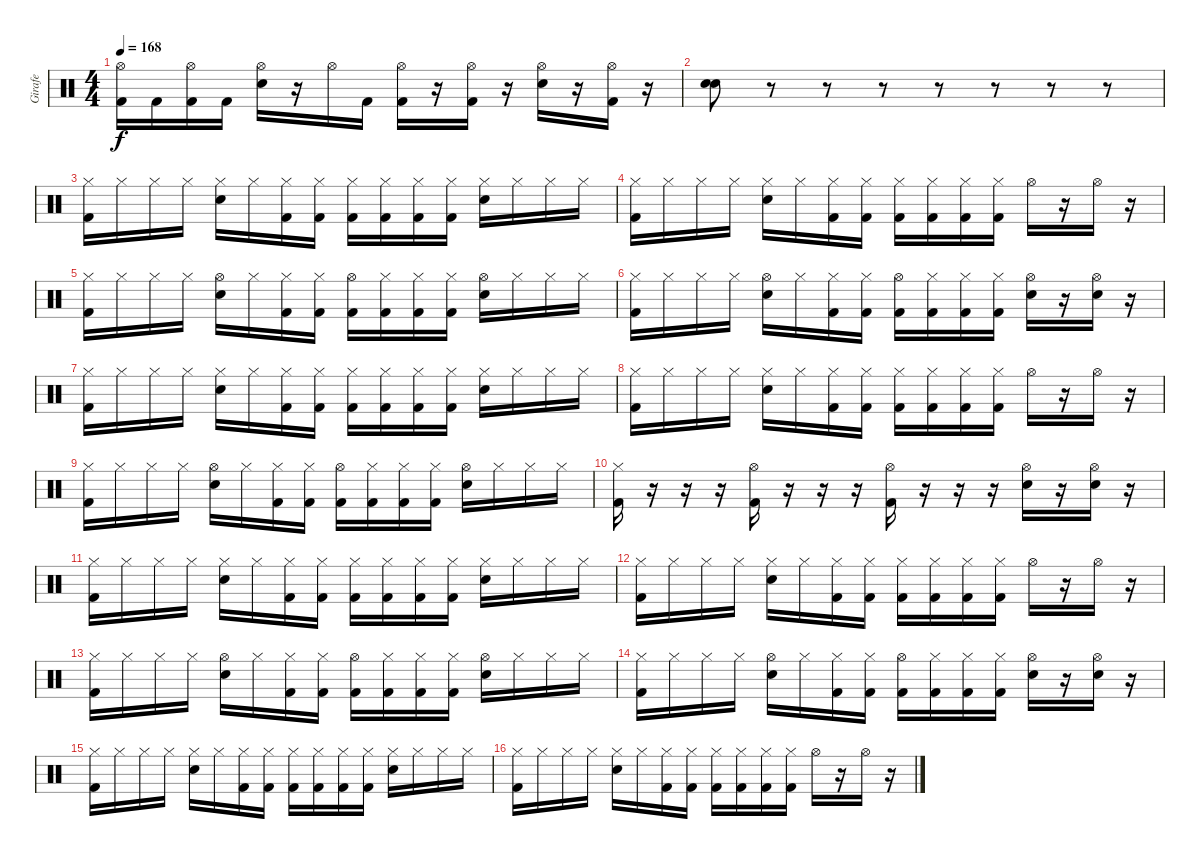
\track ("Girafe" "Girafe") {instrument percussion}
\staff {score}
\articulation defaults
\ts (4 4)
\tempo 168
\clef neutral
\ks c
("Hi-Hat (open)" "Kick (hit) 2").16{dy f} "Kick (hit) 2".16 ("Hi-Hat (open)" "Kick (hit) 2").16 "Kick (hit) 2".16 ("Hi-Hat (open)" "Electric Snare (hit)").16 r.16 "Hi-Hat (open)".16 "Kick (hit) 2".16 ("Hi-Hat (open)" "Kick (hit) 2").16 r.16 ("Hi-Hat (open)" "Kick (hit) 2").16 r.16 ("Hi-Hat (open)" "Electric Snare (hit)").16 r.16 ("Hi-Hat (open)" "Kick (hit) 2").16 r.16 |
("Electric Snare (hit)" "Electric Snare (hit)").8{bd 60} r.8 r.8 r.8 r.8 r.8 r.8 r.8 |
("Hi-Hat (closed)" "Kick (hit) 2").16 "Hi-Hat (closed)".16 "Hi-Hat (closed)".16 "Hi-Hat (closed)".16 ("Hi-Hat (closed)" "Electric Snare (hit)").16 "Hi-Hat (closed)".16 ("Hi-Hat (closed)" "Kick (hit) 2").16 ("Hi-Hat (closed)" "Kick (hit) 2").16 ("Hi-Hat (closed)" "Kick (hit) 2").16 ("Hi-Hat (closed)" "Kick (hit) 2").16 ("Hi-Hat (closed)" "Kick (hit) 2").16 ("Hi-Hat (closed)" "Kick (hit) 2").16 ("Hi-Hat (closed)" "Electric Snare (hit)").16 "Hi-Hat (closed)".16 "Hi-Hat (closed)".16 "Hi-Hat (closed)".16 |
("Hi-Hat (closed)" "Kick (hit) 2").16 "Hi-Hat (closed)".16 "Hi-Hat (closed)".16 "Hi-Hat (closed)".16 ("Hi-Hat (closed)" "Electric Snare (hit)").16 "Hi-Hat (closed)".16 ("Hi-Hat (closed)" "Kick (hit) 2").16 ("Hi-Hat (closed)" "Kick (hit) 2").16 ("Hi-Hat (closed)" "Kick (hit) 2").16 ("Hi-Hat (closed)" "Kick (hit) 2").16 ("Hi-Hat (closed)" "Kick (hit) 2").16 ("Hi-Hat (closed)" "Kick (hit) 2").16 "Hi-Hat (open)".16 r.16 "Hi-Hat (open)".16 r.16 |
("Hi-Hat (closed)" "Kick (hit) 2").16 "Hi-Hat (closed)".16 "Hi-Hat (closed)".16 "Hi-Hat (closed)".16 ("Hi-Hat (open)" "Electric Snare (hit)").16 "Hi-Hat (closed)".16 ("Hi-Hat (closed)" "Kick (hit) 2").16 ("Hi-Hat (closed)" "Kick (hit) 2").16 ("Hi-Hat (open)" "Kick (hit) 2").16 ("Hi-Hat (closed)" "Kick (hit) 2").16 ("Hi-Hat (closed)" "Kick (hit) 2").16 ("Hi-Hat (closed)" "Kick (hit) 2").16 ("Hi-Hat (open)" "Electric Snare (hit)").16 "Hi-Hat (closed)".16 "Hi-Hat (closed)".16 "Hi-Hat (closed)".16 |
("Hi-Hat (closed)" "Kick (hit) 2").16 "Hi-Hat (closed)".16 "Hi-Hat (closed)".16 "Hi-Hat (closed)".16 ("Hi-Hat (open)" "Electric Snare (hit)").16 "Hi-Hat (closed)".16 ("Hi-Hat (closed)" "Kick (hit) 2").16 ("Hi-Hat (closed)" "Kick (hit) 2").16 ("Hi-Hat (open)" "Kick (hit) 2").16 ("Hi-Hat (closed)" "Kick (hit) 2").16 ("Hi-Hat (closed)" "Kick (hit) 2").16 ("Hi-Hat (closed)" "Kick (hit) 2").16 ("Hi-Hat (open)" "Electric Snare (hit)").16 r.16 ("Hi-Hat (open)" "Electric Snare (hit)").16 r.16 |
("Hi-Hat (closed)" "Kick (hit) 2").16 "Hi-Hat (closed)".16 "Hi-Hat (closed)".16 "Hi-Hat (closed)".16 ("Hi-Hat (closed)" "Electric Snare (hit)").16 "Hi-Hat (closed)".16 ("Hi-Hat (closed)" "Kick (hit) 2").16 ("Hi-Hat (closed)" "Kick (hit) 2").16 ("Hi-Hat (closed)" "Kick (hit) 2").16 ("Hi-Hat (closed)" "Kick (hit) 2").16 ("Hi-Hat (closed)" "Kick (hit) 2").16 ("Hi-Hat (closed)" "Kick (hit) 2").16 ("Hi-Hat (closed)" "Electric Snare (hit)").16 "Hi-Hat (closed)".16 "Hi-Hat (closed)".16 "Hi-Hat (closed)".16 |
("Hi-Hat (closed)" "Kick (hit) 2").16 "Hi-Hat (closed)".16 "Hi-Hat (closed)".16 "Hi-Hat (closed)".16 ("Hi-Hat (closed)" "Electric Snare (hit)").16 "Hi-Hat (closed)".16 ("Hi-Hat (closed)" "Kick (hit) 2").16 ("Hi-Hat (closed)" "Kick (hit) 2").16 ("Hi-Hat (closed)" "Kick (hit) 2").16 ("Hi-Hat (closed)" "Kick (hit) 2").16 ("Hi-Hat (closed)" "Kick (hit) 2").16 ("Hi-Hat (closed)" "Kick (hit) 2").16 "Hi-Hat (open)".16 r.16 "Hi-Hat (open)".16 r.16 |
("Hi-Hat (closed)" "Kick (hit) 2").16 "Hi-Hat (closed)".16 "Hi-Hat (closed)".16 "Hi-Hat (closed)".16 ("Hi-Hat (open)" "Electric Snare (hit)").16 "Hi-Hat (closed)".16 ("Hi-Hat (closed)" "Kick (hit) 2").16 ("Hi-Hat (closed)" "Kick (hit) 2").16 ("Hi-Hat (open)" "Kick (hit) 2").16 ("Hi-Hat (closed)" "Kick (hit) 2").16 ("Hi-Hat (closed)" "Kick (hit) 2").16 ("Hi-Hat (closed)" "Kick (hit) 2").16 ("Hi-Hat (open)" "Electric Snare (hit)").16 "Hi-Hat (closed)".16 "Hi-Hat (closed)".16 "Hi-Hat (closed)".16 |
("Hi-Hat (closed)" "Kick (hit) 2").16 r.16 r.16 r.16 ("Hi-Hat (open)" "Kick (hit) 2").16 r.16 r.16 r.16 ("Hi-Hat (open)" "Kick (hit) 2").16 r.16 r.16 r.16 ("Hi-Hat (open)" "Electric Snare (hit)").16 r.16 ("Hi-Hat (open)" "Electric Snare (hit)").16 r.16 |
("Hi-Hat (closed)" "Kick (hit) 2").16 "Hi-Hat (closed)".16 "Hi-Hat (closed)".16 "Hi-Hat (closed)".16 ("Hi-Hat (closed)" "Electric Snare (hit)").16 "Hi-Hat (closed)".16 ("Hi-Hat (closed)" "Kick (hit) 2").16 ("Hi-Hat (closed)" "Kick (hit) 2").16 ("Hi-Hat (closed)" "Kick (hit) 2").16 ("Hi-Hat (closed)" "Kick (hit) 2").16 ("Hi-Hat (closed)" "Kick (hit) 2").16 ("Hi-Hat (closed)" "Kick (hit) 2").16 ("Hi-Hat (closed)" "Electric Snare (hit)").16 "Hi-Hat (closed)".16 "Hi-Hat (closed)".16 "Hi-Hat (closed)".16 |
("Hi-Hat (closed)" "Kick (hit) 2").16 "Hi-Hat (closed)".16 "Hi-Hat (closed)".16 "Hi-Hat (closed)".16 ("Hi-Hat (closed)" "Electric Snare (hit)").16 "Hi-Hat (closed)".16 ("Hi-Hat (closed)" "Kick (hit) 2").16 ("Hi-Hat (closed)" "Kick (hit) 2").16 ("Hi-Hat (closed)" "Kick (hit) 2").16 ("Hi-Hat (closed)" "Kick (hit) 2").16 ("Hi-Hat (closed)" "Kick (hit) 2").16 ("Hi-Hat (closed)" "Kick (hit) 2").16 "Hi-Hat (open)".16 r.16 "Hi-Hat (open)".16 r.16 |
("Hi-Hat (closed)" "Kick (hit) 2").16 "Hi-Hat (closed)".16 "Hi-Hat (closed)".16 "Hi-Hat (closed)".16 ("Hi-Hat (open)" "Electric Snare (hit)").16 "Hi-Hat (closed)".16 ("Hi-Hat (closed)" "Kick (hit) 2").16 ("Hi-Hat (closed)" "Kick (hit) 2").16 ("Hi-Hat (open)" "Kick (hit) 2").16 ("Hi-Hat (closed)" "Kick (hit) 2").16 ("Hi-Hat (closed)" "Kick (hit) 2").16 ("Hi-Hat (closed)" "Kick (hit) 2").16 ("Hi-Hat (open)" "Electric Snare (hit)").16 "Hi-Hat (closed)".16 "Hi-Hat (closed)".16 "Hi-Hat (closed)".16 |
("Hi-Hat (closed)" "Kick (hit) 2").16 "Hi-Hat (closed)".16 "Hi-Hat (closed)".16 "Hi-Hat (closed)".16 ("Hi-Hat (open)" "Electric Snare (hit)").16 "Hi-Hat (closed)".16 ("Hi-Hat (closed)" "Kick (hit) 2").16 ("Hi-Hat (closed)" "Kick (hit) 2").16 ("Hi-Hat (open)" "Kick (hit) 2").16 ("Hi-Hat (closed)" "Kick (hit) 2").16 ("Hi-Hat (closed)" "Kick (hit) 2").16 ("Hi-Hat (closed)" "Kick (hit) 2").16 ("Hi-Hat (open)" "Electric Snare (hit)").16 r.16 ("Hi-Hat (open)" "Electric Snare (hit)").16 r.16 |
("Hi-Hat (closed)" "Kick (hit) 2").16 "Hi-Hat (closed)".16 "Hi-Hat (closed)".16 "Hi-Hat (closed)".16 ("Hi-Hat (closed)" "Electric Snare (hit)").16 "Hi-Hat (closed)".16 ("Hi-Hat (closed)" "Kick (hit) 2").16 ("Hi-Hat (closed)" "Kick (hit) 2").16 ("Hi-Hat (closed)" "Kick (hit) 2").16 ("Hi-Hat (closed)" "Kick (hit) 2").16 ("Hi-Hat (closed)" "Kick (hit) 2").16 ("Hi-Hat (closed)" "Kick (hit) 2").16 ("Hi-Hat (closed)" "Electric Snare (hit)").16 "Hi-Hat (closed)".16 "Hi-Hat (closed)".16 "Hi-Hat (closed)".16 |
("Hi-Hat (closed)" "Kick (hit) 2").16 "Hi-Hat (closed)".16 "Hi-Hat (closed)".16 "Hi-Hat (closed)".16 ("Hi-Hat (closed)" "Electric Snare (hit)").16 "Hi-Hat (closed)".16 ("Hi-Hat (closed)" "Kick (hit) 2").16 ("Hi-Hat (closed)" "Kick (hit) 2").16 ("Hi-Hat (closed)" "Kick (hit) 2").16 ("Hi-Hat (closed)" "Kick (hit) 2").16 ("Hi-Hat (closed)" "Kick (hit) 2").16 ("Hi-Hat (closed)" "Kick (hit) 2").16 "Hi-Hat (open)".16 r.16 "Hi-Hat (open)".16 r.16
